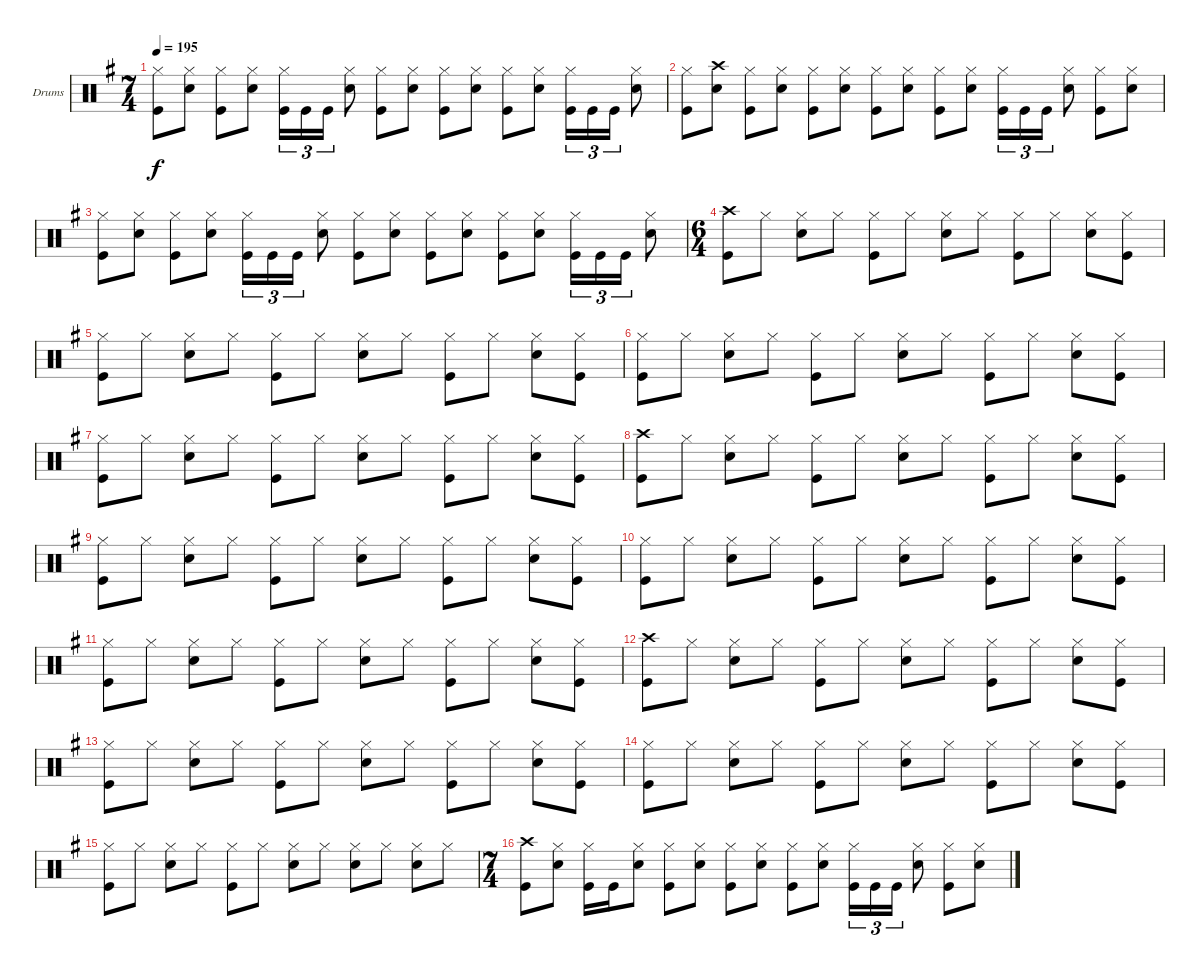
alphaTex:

\defaultSystemsLayout 4
\bracketExtendMode groupsimilarinstruments
\firstSystemTrackNameOrientation horizontal
\otherSystemsTrackNameOrientation horizontal
\track ("Drumkit" "Drums") {instrument percussion}
\staff {score}
\articulation defaults
\ts (7 4)
\tempo 195
\clef neutral
\ks g
("Hi-Hat (closed)" "Kick (hit)").8{dy f} ("Snare (hit) 2" "Hi-Hat (closed)").8 ("Hi-Hat (closed)" "Kick (hit)").8 ("Snare (hit) 2" "Hi-Hat (closed)").8 ("Hi-Hat (closed)" "Kick (hit)").16{tu (3 2)} "Kick (hit)".16{tu (3 2)} "Kick (hit)".16{tu (3 2)} ("Snare (hit) 2" "Hi-Hat (closed)").8 ("Hi-Hat (closed)" "Kick (hit)").8 ("Snare (hit) 2" "Hi-Hat (closed)").8 ("Hi-Hat (closed)" "Kick (hit)").8 ("Snare (hit) 2" "Hi-Hat (closed)").8 ("Kick (hit)" "Hi-Hat (closed)").8 ("Snare (hit) 2" "Hi-Hat (closed)").8 ("Kick (hit)" "Hi-Hat (closed)").16{tu (3 2)} "Kick (hit)".16{tu (3 2)} "Kick (hit)".16{tu (3 2)} ("Snare (hit) 2" "Hi-Hat (closed)").8 |
("Hi-Hat (closed)" "Kick (hit)").8 ("Crash high (hit)" "Snare (hit) 2").8 ("Hi-Hat (closed)" "Kick (hit)").8 ("Snare (hit) 2" "Hi-Hat (closed)").8 ("Hi-Hat (closed)" "Kick (hit)").8 ("Snare (hit) 2" "Hi-Hat (closed)").8 ("Hi-Hat (closed)" "Kick (hit)").8 ("Snare (hit) 2" "Hi-Hat (closed)").8 ("Hi-Hat (closed)" "Kick (hit)").8 ("Snare (hit) 2" "Hi-Hat (closed)").8 ("Hi-Hat (closed)" "Kick (hit)").16{tu (3 2)} "Kick (hit)".16{tu (3 2)} "Kick (hit)".16{tu (3 2)} ("Snare (hit) 2" "Hi-Hat (closed)").8 ("Hi-Hat (closed)" "Kick (hit)").8 ("Snare (hit) 2" "Hi-Hat (closed)").8 |
("Hi-Hat (closed)" "Kick (hit)").8 ("Snare (hit) 2" "Hi-Hat (closed)").8 ("Hi-Hat (closed)" "Kick (hit)").8 ("Snare (hit) 2" "Hi-Hat (closed)").8 ("Hi-Hat (closed)" "Kick (hit)").16{tu (3 2)} "Kick (hit)".16{tu (3 2)} "Kick (hit)".16{tu (3 2)} ("Snare (hit) 2" "Hi-Hat (closed)").8 ("Hi-Hat (closed)" "Kick (hit)").8 ("Snare (hit) 2" "Hi-Hat (closed)").8 ("Hi-Hat (closed)" "Kick (hit)").8 ("Snare (hit) 2" "Hi-Hat (closed)").8 ("Kick (hit)" "Hi-Hat (closed)").8 ("Snare (hit) 2" "Hi-Hat (closed)").8 ("Kick (hit)" "Hi-Hat (closed)").16{tu (3 2)} "Kick (hit)".16{tu (3 2)} "Kick (hit)".16{tu (3 2)} ("Snare (hit) 2" "Hi-Hat (closed)").8 |
\ts (6 4)
("Kick (hit)" "Crash high (hit)").8 "Hi-Hat (closed)".8 ("Snare (hit) 2" "Hi-Hat (closed)").8 "Hi-Hat (closed)".8 ("Kick (hit)" "Hi-Hat (closed)").8 "Hi-Hat (closed)".8 ("Snare (hit) 2" "Hi-Hat (closed)").8 "Hi-Hat (closed)".8 ("Kick (hit)" "Hi-Hat (closed)").8 "Hi-Hat (closed)".8 ("Snare (hit) 2" "Hi-Hat (closed)").8 ("Kick (hit)" "Hi-Hat (closed)").8 |
("Hi-Hat (closed)" "Kick (hit)").8 "Hi-Hat (closed)".8 ("Snare (hit) 2" "Hi-Hat (closed)").8 "Hi-Hat (closed)".8 ("Kick (hit)" "Hi-Hat (closed)").8 "Hi-Hat (closed)".8 ("Snare (hit) 2" "Hi-Hat (closed)").8 "Hi-Hat (closed)".8 ("Kick (hit)" "Hi-Hat (closed)").8 "Hi-Hat (closed)".8 ("Snare (hit) 2" "Hi-Hat (closed)").8 ("Kick (hit)" "Hi-Hat (closed)").8 |
("Hi-Hat (closed)" "Kick (hit)").8 "Hi-Hat (closed)".8 ("Snare (hit) 2" "Hi-Hat (closed)").8 "Hi-Hat (closed)".8 ("Kick (hit)" "Hi-Hat (closed)").8 "Hi-Hat (closed)".8 ("Snare (hit) 2" "Hi-Hat (closed)").8 "Hi-Hat (closed)".8 ("Kick (hit)" "Hi-Hat (closed)").8 "Hi-Hat (closed)".8 ("Snare (hit) 2" "Hi-Hat (closed)").8 ("Kick (hit)" "Hi-Hat (closed)").8 |
("Hi-Hat (closed)" "Kick (hit)").8 "Hi-Hat (closed)".8 ("Snare (hit) 2" "Hi-Hat (closed)").8 "Hi-Hat (closed)".8 ("Kick (hit)" "Hi-Hat (closed)").8 "Hi-Hat (closed)".8 ("Snare (hit) 2" "Hi-Hat (closed)").8 "Hi-Hat (closed)".8 ("Kick (hit)" "Hi-Hat (closed)").8 "Hi-Hat (closed)".8 ("Snare (hit) 2" "Hi-Hat (closed)").8 ("Kick (hit)" "Hi-Hat (closed)").8 |
("Kick (hit)" "Crash high (hit)").8 "Hi-Hat (closed)".8 ("Snare (hit) 2" "Hi-Hat (closed)").8 "Hi-Hat (closed)".8 ("Kick (hit)" "Hi-Hat (closed)").8 "Hi-Hat (closed)".8 ("Snare (hit) 2" "Hi-Hat (closed)").8 "Hi-Hat (closed)".8 ("Kick (hit)" "Hi-Hat (closed)").8 "Hi-Hat (closed)".8 ("Snare (hit) 2" "Hi-Hat (closed)").8 ("Kick (hit)" "Hi-Hat (closed)").8 |
("Hi-Hat (closed)" "Kick (hit)").8 "Hi-Hat (closed)".8 ("Snare (hit) 2" "Hi-Hat (closed)").8 "Hi-Hat (closed)".8 ("Kick (hit)" "Hi-Hat (closed)").8 "Hi-Hat (closed)".8 ("Snare (hit) 2" "Hi-Hat (closed)").8 "Hi-Hat (closed)".8 ("Kick (hit)" "Hi-Hat (closed)").8 "Hi-Hat (closed)".8 ("Snare (hit) 2" "Hi-Hat (closed)").8 ("Kick (hit)" "Hi-Hat (closed)").8 |
("Hi-Hat (closed)" "Kick (hit)").8 "Hi-Hat (closed)".8 ("Snare (hit) 2" "Hi-Hat (closed)").8 "Hi-Hat (closed)".8 ("Kick (hit)" "Hi-Hat (closed)").8 "Hi-Hat (closed)".8 ("Snare (hit) 2" "Hi-Hat (closed)").8 "Hi-Hat (closed)".8 ("Kick (hit)" "Hi-Hat (closed)").8 "Hi-Hat (closed)".8 ("Snare (hit) 2" "Hi-Hat (closed)").8 ("Kick (hit)" "Hi-Hat (closed)").8 |
("Hi-Hat (closed)" "Kick (hit)").8 "Hi-Hat (closed)".8 ("Snare (hit) 2" "Hi-Hat (closed)").8 "Hi-Hat (closed)".8 ("Kick (hit)" "Hi-Hat (closed)").8 "Hi-Hat (closed)".8 ("Snare (hit) 2" "Hi-Hat (closed)").8 "Hi-Hat (closed)".8 ("Kick (hit)" "Hi-Hat (closed)").8 "Hi-Hat (closed)".8 ("Snare (hit) 2" "Hi-Hat (closed)").8 ("Kick (hit)" "Hi-Hat (closed)").8 |
("Kick (hit)" "Crash high (hit)").8 "Hi-Hat (closed)".8 ("Snare (hit) 2" "Hi-Hat (closed)").8 "Hi-Hat (closed)".8 ("Kick (hit)" "Hi-Hat (closed)").8 "Hi-Hat (closed)".8 ("Snare (hit) 2" "Hi-Hat (closed)").8 "Hi-Hat (closed)".8 ("Kick (hit)" "Hi-Hat (closed)").8 "Hi-Hat (closed)".8 ("Snare (hit) 2" "Hi-Hat (closed)").8 ("Kick (hit)" "Hi-Hat (closed)").8 |
("Hi-Hat (closed)" "Kick (hit)").8 "Hi-Hat (closed)".8 ("Snare (hit) 2" "Hi-Hat (closed)").8 "Hi-Hat (closed)".8 ("Kick (hit)" "Hi-Hat (closed)").8 "Hi-Hat (closed)".8 ("Snare (hit) 2" "Hi-Hat (closed)").8 "Hi-Hat (closed)".8 ("Kick (hit)" "Hi-Hat (closed)").8 "Hi-Hat (closed)".8 ("Snare (hit) 2" "Hi-Hat (closed)").8 ("Kick (hit)" "Hi-Hat (closed)").8 |
("Hi-Hat (closed)" "Kick (hit)").8 "Hi-Hat (closed)".8 ("Snare (hit) 2" "Hi-Hat (closed)").8 "Hi-Hat (closed)".8 ("Kick (hit)" "Hi-Hat (closed)").8 "Hi-Hat (closed)".8 ("Snare (hit) 2" "Hi-Hat (closed)").8 "Hi-Hat (closed)".8 ("Kick (hit)" "Hi-Hat (closed)").8 "Hi-Hat (closed)".8 ("Snare (hit) 2" "Hi-Hat (closed)").8 ("Kick (hit)" "Hi-Hat (closed)").8 |
("Hi-Hat (closed)" "Kick (hit)").8 "Hi-Hat (closed)".8 ("Snare (hit) 2" "Hi-Hat (closed)").8 "Hi-Hat (closed)".8 ("Kick (hit)" "Hi-Hat (closed)").8 "Hi-Hat (closed)".8 ("Snare (hit) 2" "Hi-Hat (closed)").8 "Hi-Hat (closed)".8 ("Snare (hit) 2" "Hi-Hat (closed)").8 "Hi-Hat (closed)".8 ("Snare (hit) 2" "Hi-Hat (closed)").8 "Hi-Hat (closed)".8 |
\ts (7 4)
("Crash high (hit)" "Kick (hit)").8 ("Snare (hit) 2" "Hi-Hat (closed)").8 ("Hi-Hat (closed)" "Kick (hit)").16 "Kick (hit)".16 ("Snare (hit) 2" "Hi-Hat (closed)").8 ("Hi-Hat (closed)" "Kick (hit)").8 ("Snare (hit) 2" "Hi-Hat (closed)").8 ("Hi-Hat (closed)" "Kick (hit)").8 ("Snare (hit) 2" "Hi-Hat (closed)").8 ("Hi-Hat (closed)" "Kick (hit)").8 ("Snare (hit) 2" "Hi-Hat (closed)").8 ("Hi-Hat (closed)" "Kick (hit)").16{tu (3 2)} "Kick (hit)".16{tu (3 2)} "Kick (hit)".16{tu (3 2)} ("Snare (hit) 2" "Hi-Hat (closed)").8 ("Hi-Hat (closed)" "Kick (hit)").8 ("Snare (hit) 2" "Hi-Hat (closed)").8
